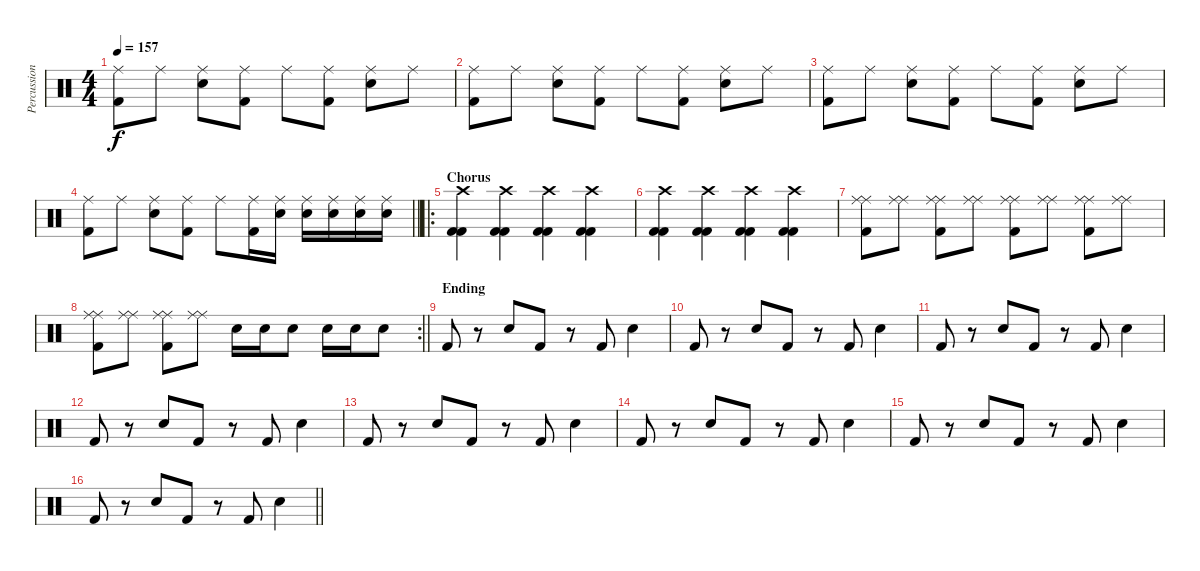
\track ("Percussion" "Percussion") {instrument percussion}
\staff {score}
\articulation defaults
\ts (4 4)
\tempo 157
\clef neutral
\ks c
("Kick (hit) 2" "Ride (middle)").8{dy f} "Ride (middle)".8 ("Snare (hit) 2" "Ride (middle)").8 ("Kick (hit) 2" "Ride (middle)").8 "Ride (middle)".8 ("Kick (hit) 2" "Ride (middle)").8 ("Snare (hit) 2" "Ride (middle)").8 "Ride (middle)".8 |
("Kick (hit) 2" "Ride (middle)").8 "Ride (middle)".8 ("Snare (hit) 2" "Ride (middle)").8 ("Kick (hit) 2" "Ride (middle)").8 "Ride (middle)".8 ("Kick (hit) 2" "Ride (middle)").8 ("Snare (hit) 2" "Ride (middle)").8 "Ride (middle)".8 |
("Kick (hit) 2" "Ride (middle)").8 "Ride (middle)".8 ("Snare (hit) 2" "Ride (middle)").8 ("Kick (hit) 2" "Ride (middle)").8 "Ride (middle)".8 ("Kick (hit) 2" "Ride (middle)").8 ("Snare (hit) 2" "Ride (middle)").8 "Ride (middle)".8 |
\barLineRight lightlight
("Kick (hit) 2" "Ride (middle)").8 "Ride (middle)".8 ("Snare (hit) 2" "Ride (middle)").8 ("Kick (hit) 2" "Ride (middle)").8 "Ride (middle)".8 ("Kick (hit) 2" "Ride (middle)").16 ("Snare (hit) 2" "Ride (middle)").16 ("Snare (hit) 2" "Ride (middle)").16 ("Snare (hit) 2" "Ride (middle)").16 ("Snare (hit) 2" "Ride (middle)").16 ("Snare (hit) 2" "Ride (middle)").16 |
\ro
\section ("" "Chorus")
("Kick (hit) 2" "Kick (hit) 2" "Crash high (hit)").4 ("Kick (hit) 2" "Kick (hit) 2" "Crash high (hit)").4 ("Kick (hit) 2" "Kick (hit) 2" "Crash high (hit)").4 ("Kick (hit) 2" "Kick (hit) 2" "Crash high (hit)").4 |
("Kick (hit) 2" "Kick (hit) 2" "Crash high (hit)").4 ("Kick (hit) 2" "Kick (hit) 2" "Crash high (hit)").4 ("Kick (hit) 2" "Kick (hit) 2" "Crash high (hit)").4 ("Kick (hit) 2" "Kick (hit) 2" "Crash high (hit)").4 |
("Ride (middle)" "Kick (hit) 2" "Ride (middle)").8 ("Ride (middle)" "Ride (middle)").8 ("Ride (middle)" "Kick (hit) 2" "Ride (middle)").8 ("Ride (middle)" "Ride (middle)").8 ("Ride (middle)" "Kick (hit) 2" "Ride (middle)").8 ("Ride (middle)" "Ride (middle)").8 ("Ride (middle)" "Kick (hit) 2" "Ride (middle)").8 ("Ride (middle)" "Ride (middle)").8 |
\rc 2
\barLineRight lightlight
("Ride (middle)" "Kick (hit) 2" "Ride (middle)").8 ("Ride (middle)" "Ride (middle)").8 ("Ride (middle)" "Kick (hit) 2" "Ride (middle)").8 ("Ride (middle)" "Ride (middle)").8 "Snare (hit) 2".16 "Snare (hit) 2".16 "Snare (hit) 2".8 "Snare (hit) 2".16 "Snare (hit) 2".16 "Snare (hit) 2".8 |
\section ("" "Ending")
"Kick (hit) 2".8 r.8 "Snare (hit) 2".8 "Kick (hit) 2".8 r.8 "Kick (hit) 2".8 "Snare (hit) 2".4 |
"Kick (hit) 2".8 r.8 "Snare (hit) 2".8 "Kick (hit) 2".8 r.8 "Kick (hit) 2".8 "Snare (hit) 2".4 |
"Kick (hit) 2".8 r.8 "Snare (hit) 2".8 "Kick (hit) 2".8 r.8 "Kick (hit) 2".8 "Snare (hit) 2".4 |
"Kick (hit) 2".8 r.8 "Snare (hit) 2".8 "Kick (hit) 2".8 r.8 "Kick (hit) 2".8 "Snare (hit) 2".4 |
"Kick (hit) 2".8 r.8 "Snare (hit) 2".8 "Kick (hit) 2".8 r.8 "Kick (hit) 2".8 "Snare (hit) 2".4 |
"Kick (hit) 2".8 r.8 "Snare (hit) 2".8 "Kick (hit) 2".8 r.8 "Kick (hit) 2".8 "Snare (hit) 2".4 |
"Kick (hit) 2".8 r.8 "Snare (hit) 2".8 "Kick (hit) 2".8 r.8 "Kick (hit) 2".8 "Snare (hit) 2".4 |
\barLineRight lightlight "Kick (hit) 2".8
r.8 "Snare (hit) 2".8 "Kick (hit) 2".8 r.8 "Kick (hit) 2".8 "Snare (hit) 2".4
